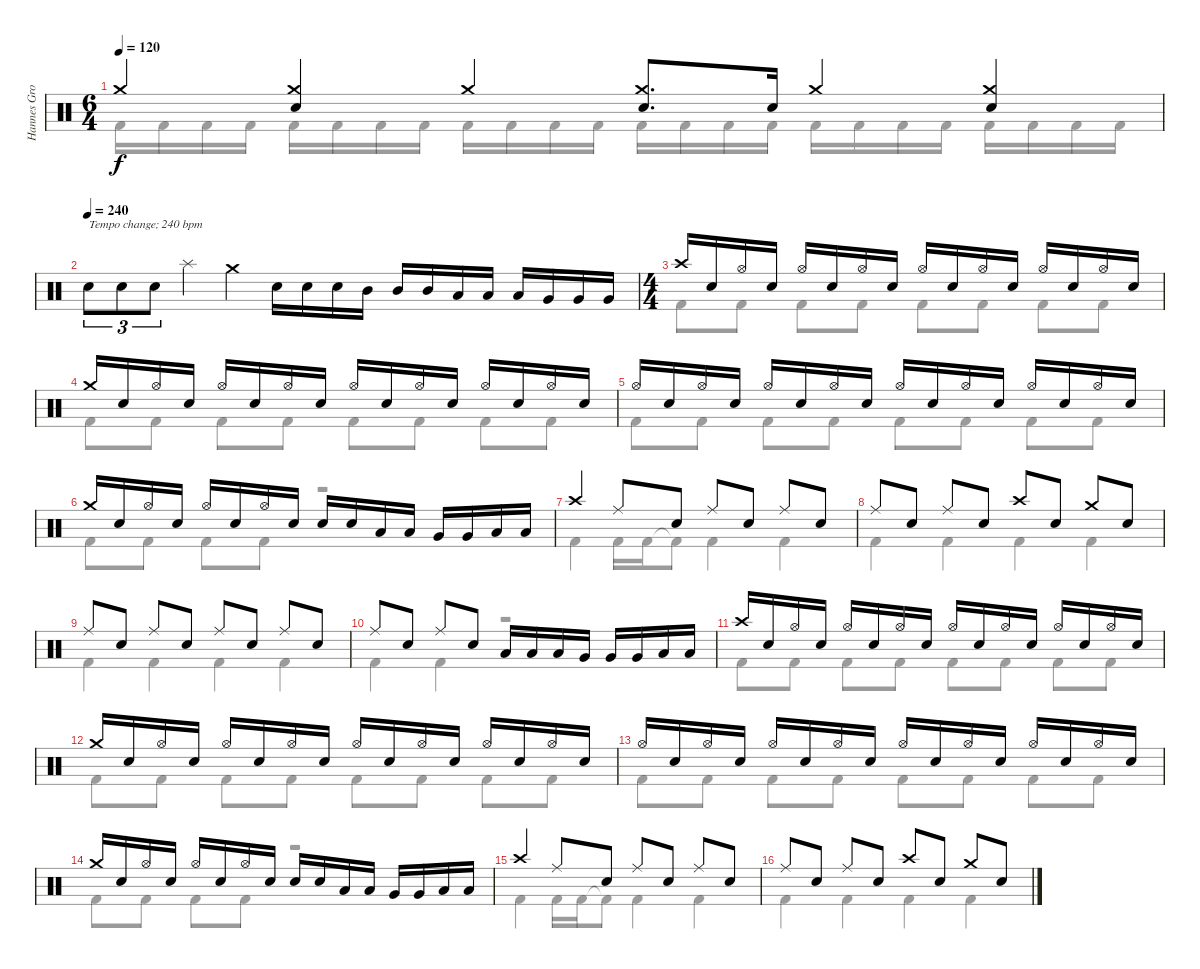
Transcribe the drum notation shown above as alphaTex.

\track ("Hannes Grossmann - drums" "Hannes Gro") {instrument percussion}
\staff {score}
\articulation defaults
\voice
\ts (6 4)
\tempo 120
\clef neutral
\ks c "Crash medium (hit)".4{dy f}
("Crash medium (hit)" "Electric Snare (hit)").4 "Crash medium (hit)".4 ("Crash medium (hit)" "Electric Snare (hit)").8{d} "Electric Snare (hit)".16 "Crash medium (hit)".4 ("Crash medium (hit)" "Electric Snare (hit)").4 |
\tempo (240)
"Electric Snare (hit)".8{tu (3 2) txt "Tempo change; 240 bpm"} "Electric Snare (hit)".8{tu (3 2)} "Electric Snare (hit)".8{tu (3 2)} "Splash (hit)".4 "Crash medium (hit)".4 "Electric Snare (hit)".16 "Electric Snare (hit)".16 "Electric Snare (hit)".16 "Mid Tom (hit)".16 "Mid Tom (hit)".16 "Mid Tom (hit)".16 "Low Tom (hit)".16 "Low Tom (hit)".16 "Low Tom (hit)".16 "Very Low Tom (hit)".16 "Very Low Tom (hit)".16 "Very Low Tom (hit)".16 |
\ts (4 4)
"Crash high (hit)".16 "Electric Snare (hit)".16 "Hi-Hat (open)".16 "Electric Snare (hit)".16 "Hi-Hat (open)".16 "Electric Snare (hit)".16 "Hi-Hat (open)".16 "Electric Snare (hit)".16 "Hi-Hat (open)".16 "Electric Snare (hit)".16 "Hi-Hat (open)".16 "Electric Snare (hit)".16 "Hi-Hat (open)".16 "Electric Snare (hit)".16 "Hi-Hat (open)".16 "Electric Snare (hit)".16 |
"Crash medium (hit)".16 "Electric Snare (hit)".16 "Hi-Hat (open)".16 "Electric Snare (hit)".16 "Hi-Hat (open)".16 "Electric Snare (hit)".16 "Hi-Hat (open)".16 "Electric Snare (hit)".16 "Hi-Hat (open)".16 "Electric Snare (hit)".16 "Hi-Hat (open)".16 "Electric Snare (hit)".16 "Hi-Hat (open)".16 "Electric Snare (hit)".16 "Hi-Hat (open)".16 "Electric Snare (hit)".16 |
"Hi-Hat (open)".16 "Electric Snare (hit)".16 "Hi-Hat (open)".16 "Electric Snare (hit)".16 "Hi-Hat (open)".16 "Electric Snare (hit)".16 "Hi-Hat (open)".16 "Electric Snare (hit)".16 "Hi-Hat (open)".16 "Electric Snare (hit)".16 "Hi-Hat (open)".16 "Electric Snare (hit)".16 "Hi-Hat (open)".16 "Electric Snare (hit)".16 "Hi-Hat (open)".16 "Electric Snare (hit)".16 |
"Crash medium (hit)".16 "Electric Snare (hit)".16 "Hi-Hat (open)".16 "Electric Snare (hit)".16 "Hi-Hat (open)".16 "Electric Snare (hit)".16 "Hi-Hat (open)".16 "Electric Snare (hit)".16 "Electric Snare (hit)".16 "Electric Snare (hit)".16 "Low Tom (hit)".16 "Low Tom (hit)".16 "Very Low Tom (hit)".16 "Very Low Tom (hit)".16 "Low Floor Tom (hit)".16 "Low Floor Tom (hit)".16 |
"Crash high (hit)".4 "Ride (middle)".8 "Electric Snare (hit)".8 "Ride (middle)".8 "Electric Snare (hit)".8 "Ride (middle)".8 "Electric Snare (hit)".8 |
"Ride (middle)".8 "Electric Snare (hit)".8 "Ride (middle)".8 "Electric Snare (hit)".8 "Crash high (hit)".8 "Electric Snare (hit)".8 "Crash medium (hit)".8 "Electric Snare (hit)".8 |
"Ride (middle)".8 "Electric Snare (hit)".8 "Ride (middle)".8 "Electric Snare (hit)".8 "Ride (middle)".8 "Electric Snare (hit)".8 "Ride (middle)".8 "Electric Snare (hit)".8 |
"Ride (middle)".8 "Electric Snare (hit)".8 "Ride (middle)".8 "Electric Snare (hit)".8 "Low Tom (hit)".16 "Low Tom (hit)".16 "Low Tom (hit)".16 "Very Low Tom (hit)".16 "Very Low Tom (hit)".16 "Very Low Tom (hit)".16 "Low Floor Tom (hit)".16 "Low Floor Tom (hit)".16 |
"Crash high (hit)".16 "Electric Snare (hit)".16 "Hi-Hat (open)".16 "Electric Snare (hit)".16 "Hi-Hat (open)".16 "Electric Snare (hit)".16 "Hi-Hat (open)".16 "Electric Snare (hit)".16 "Hi-Hat (open)".16 "Electric Snare (hit)".16 "Hi-Hat (open)".16 "Electric Snare (hit)".16 "Hi-Hat (open)".16 "Electric Snare (hit)".16 "Hi-Hat (open)".16 "Electric Snare (hit)".16 |
"Crash medium (hit)".16 "Electric Snare (hit)".16 "Hi-Hat (open)".16 "Electric Snare (hit)".16 "Hi-Hat (open)".16 "Electric Snare (hit)".16 "Hi-Hat (open)".16 "Electric Snare (hit)".16 "Hi-Hat (open)".16 "Electric Snare (hit)".16 "Hi-Hat (open)".16 "Electric Snare (hit)".16 "Hi-Hat (open)".16 "Electric Snare (hit)".16 "Hi-Hat (open)".16 "Electric Snare (hit)".16 |
"Hi-Hat (open)".16 "Electric Snare (hit)".16 "Hi-Hat (open)".16 "Electric Snare (hit)".16 "Hi-Hat (open)".16 "Electric Snare (hit)".16 "Hi-Hat (open)".16 "Electric Snare (hit)".16 "Hi-Hat (open)".16 "Electric Snare (hit)".16 "Hi-Hat (open)".16 "Electric Snare (hit)".16 "Hi-Hat (open)".16 "Electric Snare (hit)".16 "Hi-Hat (open)".16 "Electric Snare (hit)".16 |
"Crash medium (hit)".16 "Electric Snare (hit)".16 "Hi-Hat (open)".16 "Electric Snare (hit)".16 "Hi-Hat (open)".16 "Electric Snare (hit)".16 "Hi-Hat (open)".16 "Electric Snare (hit)".16 "Electric Snare (hit)".16 "Electric Snare (hit)".16 "Low Tom (hit)".16 "Low Tom (hit)".16 "Very Low Tom (hit)".16 "Very Low Tom (hit)".16 "Low Floor Tom (hit)".16 "Low Floor Tom (hit)".16 |
"Crash high (hit)".4 "Ride (middle)".8 "Electric Snare (hit)".8 "Ride (middle)".8 "Electric Snare (hit)".8 "Ride (middle)".8 "Electric Snare (hit)".8 |
"Ride (middle)".8 "Electric Snare (hit)".8 "Ride (middle)".8 "Electric Snare (hit)".8 "Crash high (hit)".8 "Electric Snare (hit)".8 "Crash medium (hit)".8 "Electric Snare (hit)".8
\voice
\clef neutral
\ottava regular
\simile none
\ks c "Kick (hit) 2".16{dy f} "Kick (hit) 2".16 "Kick (hit) 2".16 "Kick (hit) 2".16 "Kick (hit) 2".16 "Kick (hit) 2".16 "Kick (hit) 2".16 "Kick (hit) 2".16 "Kick (hit) 2".16 "Kick (hit) 2".16 "Kick (hit) 2".16 "Kick (hit) 2".16 "Kick (hit) 2".16 "Kick (hit) 2".16 "Kick (hit) 2".16 "Kick (hit) 2".16 "Kick (hit) 2".16 "Kick (hit) 2".16 "Kick (hit) 2".16 "Kick (hit) 2".16 "Kick (hit) 2".16 "Kick (hit) 2".16 "Kick (hit) 2".16 "Kick (hit) 2".16
|
|
"Kick (hit) 2".8 "Kick (hit) 2".8 "Kick (hit) 2".8 "Kick (hit) 2".8 "Kick (hit) 2".8 "Kick (hit) 2".8 "Kick (hit) 2".8 "Kick (hit) 2".8 |
"Kick (hit) 2".8 "Kick (hit) 2".8 "Kick (hit) 2".8 "Kick (hit) 2".8 "Kick (hit) 2".8 "Kick (hit) 2".8 "Kick (hit) 2".8 "Kick (hit) 2".8 |
"Kick (hit) 2".8 "Kick (hit) 2".8 "Kick (hit) 2".8 "Kick (hit) 2".8 "Kick (hit) 2".8 "Kick (hit) 2".8 "Kick (hit) 2".8 "Kick (hit) 2".8 |
"Kick (hit) 2".8 "Kick (hit) 2".8 "Kick (hit) 2".8 "Kick (hit) 2".8 r.2 |
"Kick (hit) 2".4 "Kick (hit) 2".16 "Kick (hit) 2".16 "Kick (hit) 2"{t}.8 "Kick (hit) 2".4 "Kick (hit) 2".4 |
"Kick (hit) 2".4 "Kick (hit) 2".4 "Kick (hit) 2".4 "Kick (hit) 2".4 |
"Kick (hit) 2".4 "Kick (hit) 2".4 "Kick (hit) 2".4 "Kick (hit) 2".4 |
"Kick (hit) 2".4 "Kick (hit) 2".4 r.2 |
"Kick (hit) 2".8 "Kick (hit) 2".8 "Kick (hit) 2".8 "Kick (hit) 2".8 "Kick (hit) 2".8 "Kick (hit) 2".8 "Kick (hit) 2".8 "Kick (hit) 2".8 |
"Kick (hit) 2".8 "Kick (hit) 2".8 "Kick (hit) 2".8 "Kick (hit) 2".8 "Kick (hit) 2".8 "Kick (hit) 2".8 "Kick (hit) 2".8 "Kick (hit) 2".8 |
"Kick (hit) 2".8 "Kick (hit) 2".8 "Kick (hit) 2".8 "Kick (hit) 2".8 "Kick (hit) 2".8 "Kick (hit) 2".8 "Kick (hit) 2".8 "Kick (hit) 2".8 |
"Kick (hit) 2".8 "Kick (hit) 2".8 "Kick (hit) 2".8 "Kick (hit) 2".8 r.2 |
"Kick (hit) 2".4 "Kick (hit) 2".16 "Kick (hit) 2".16 "Kick (hit) 2"{t}.8 "Kick (hit) 2".4 "Kick (hit) 2".4 |
"Kick (hit) 2".4 "Kick (hit) 2".4 "Kick (hit) 2".4 "Kick (hit) 2".4
